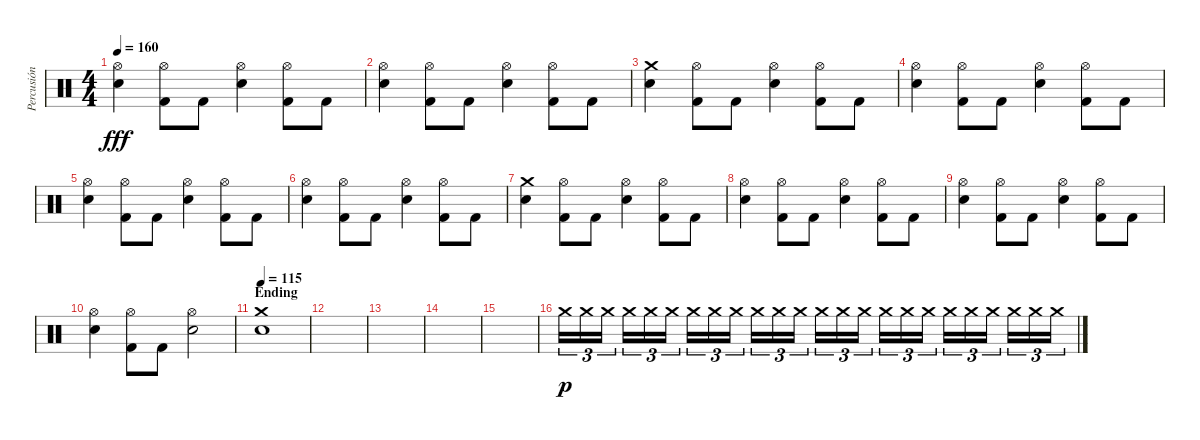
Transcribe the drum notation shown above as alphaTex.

\track ("Percusión" "Percusión") {instrument percussion}
\staff {score}
\articulation defaults
\ts (4 4)
\tempo 160
\clef neutral
\ks c
("Hi-Hat (open)" "Snare (hit) 2").4{dy fff} ("Hi-Hat (open)" "Kick (hit) 2").8 "Kick (hit) 2".8 ("Hi-Hat (open)" "Snare (hit) 2").4 ("Hi-Hat (open)" "Kick (hit) 2").8 "Kick (hit) 2".8 |
("Hi-Hat (open)" "Snare (hit) 2").4 ("Hi-Hat (open)" "Kick (hit) 2").8 "Kick (hit) 2".8 ("Hi-Hat (open)" "Snare (hit) 2").4 ("Hi-Hat (open)" "Kick (hit) 2").8 "Kick (hit) 2".8 |
("Crash medium (hit)" "Snare (hit) 2").4 ("Hi-Hat (open)" "Kick (hit) 2").8 "Kick (hit) 2".8 ("Hi-Hat (open)" "Snare (hit) 2").4 ("Hi-Hat (open)" "Kick (hit) 2").8 "Kick (hit) 2".8 |
("Hi-Hat (open)" "Snare (hit) 2").4 ("Hi-Hat (open)" "Kick (hit) 2").8 "Kick (hit) 2".8 ("Hi-Hat (open)" "Snare (hit) 2").4 ("Hi-Hat (open)" "Kick (hit) 2").8 "Kick (hit) 2".8 |
("Hi-Hat (open)" "Snare (hit) 2").4 ("Hi-Hat (open)" "Kick (hit) 2").8 "Kick (hit) 2".8 ("Hi-Hat (open)" "Snare (hit) 2").4 ("Hi-Hat (open)" "Kick (hit) 2").8 "Kick (hit) 2".8 |
("Hi-Hat (open)" "Snare (hit) 2").4 ("Hi-Hat (open)" "Kick (hit) 2").8 "Kick (hit) 2".8 ("Hi-Hat (open)" "Snare (hit) 2").4 ("Hi-Hat (open)" "Kick (hit) 2").8 "Kick (hit) 2".8 |
("Crash medium (hit)" "Snare (hit) 2").4 ("Hi-Hat (open)" "Kick (hit) 2").8 "Kick (hit) 2".8 ("Hi-Hat (open)" "Snare (hit) 2").4 ("Hi-Hat (open)" "Kick (hit) 2").8 "Kick (hit) 2".8 |
("Hi-Hat (open)" "Snare (hit) 2").4 ("Hi-Hat (open)" "Kick (hit) 2").8 "Kick (hit) 2".8 ("Hi-Hat (open)" "Snare (hit) 2").4 ("Hi-Hat (open)" "Kick (hit) 2").8 "Kick (hit) 2".8 |
("Hi-Hat (open)" "Snare (hit) 2").4 ("Hi-Hat (open)" "Kick (hit) 2").8 "Kick (hit) 2".8 ("Hi-Hat (open)" "Snare (hit) 2").4 ("Hi-Hat (open)" "Kick (hit) 2").8 "Kick (hit) 2".8 |
("Hi-Hat (open)" "Snare (hit) 2").4 ("Hi-Hat (open)" "Kick (hit) 2").8 "Kick (hit) 2".8 ("Hi-Hat (open)" "Snare (hit) 2").2 |
\section ("" "Ending")
\tempo 115
("Crash medium (hit)" "Snare (hit) 2").1 |
|
|
|
|
"Crash medium (hit)".16{tu (3 2) dy p volume 16} "Crash medium (hit)".16{tu (3 2)} "Crash medium (hit)".16{tu (3 2)} "Crash medium (hit)".16{tu (3 2)} "Crash medium (hit)".16{tu (3 2)} "Crash medium (hit)".16{tu (3 2)} "Crash medium (hit)".16{tu (3 2)} "Crash medium (hit)".16{tu (3 2)} "Crash medium (hit)".16{tu (3 2)} "Crash medium (hit)".16{tu (3 2)} "Crash medium (hit)".16{tu (3 2)} "Crash medium (hit)".16{tu (3 2)} "Crash medium (hit)".16{tu (3 2)} "Crash medium (hit)".16{tu (3 2)} "Crash medium (hit)".16{tu (3 2)} "Crash medium (hit)".16{tu (3 2)} "Crash medium (hit)".16{tu (3 2)} "Crash medium (hit)".16{tu (3 2)} "Crash medium (hit)".16{tu (3 2)} "Crash medium (hit)".16{tu (3 2)} "Crash medium (hit)".16{tu (3 2)} "Crash medium (hit)".16{tu (3 2)} "Crash medium (hit)".16{tu (3 2)} "Crash medium (hit)".16{tu (3 2)}
